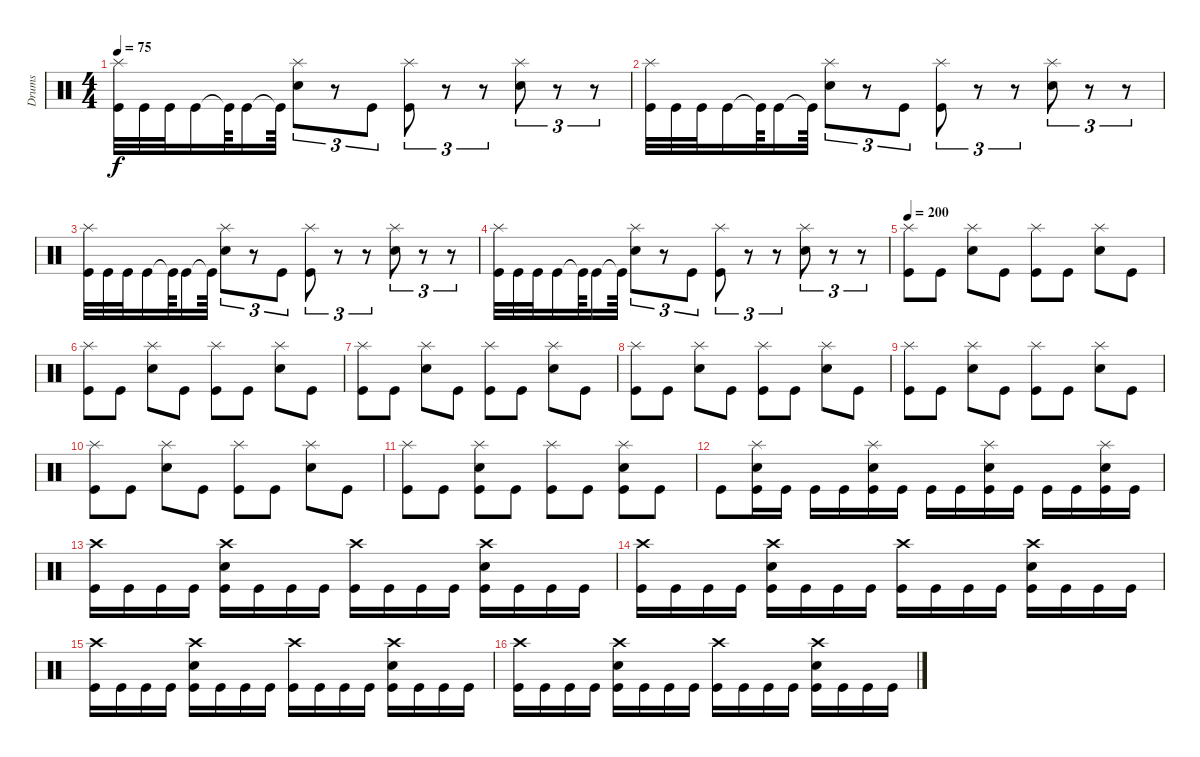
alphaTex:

\track ("Drums" "Drums") {instrument percussion}
\staff {score}
\articulation defaults
\ts (4 4)
\tempo 75
\clef neutral
\ks c
("Splash (hit)" "Kick (hit)").32{dy f} "Kick (hit)".32 "Kick (hit)".32 "Kick (hit)".16 "Kick (hit)"{t}.64 "Kick (hit)".16 "Kick (hit)"{t}.64 ("Splash (hit)" "Snare (hit) 2").8{tu (3 2)} r.8{tu (3 2)} "Kick (hit)".8{tu (3 2)} ("Splash (hit)" "Kick (hit)").8{tu (3 2)} r.8{tu (3 2)} r.8{tu (3 2)} ("Splash (hit)" "Snare (hit) 2").8{tu (3 2)} r.8{tu (3 2)} r.8{tu (3 2)} |
("Splash (hit)" "Kick (hit)").32 "Kick (hit)".32 "Kick (hit)".32 "Kick (hit)".16 "Kick (hit)"{t}.64 "Kick (hit)".16 "Kick (hit)"{t}.64 ("Splash (hit)" "Snare (hit) 2").8{tu (3 2)} r.8{tu (3 2)} "Kick (hit)".8{tu (3 2)} ("Splash (hit)" "Kick (hit)").8{tu (3 2)} r.8{tu (3 2)} r.8{tu (3 2)} ("Splash (hit)" "Snare (hit) 2").8{tu (3 2)} r.8{tu (3 2)} r.8{tu (3 2)} |
("Splash (hit)" "Kick (hit)").32 "Kick (hit)".32 "Kick (hit)".32 "Kick (hit)".16 "Kick (hit)"{t}.64 "Kick (hit)".16 "Kick (hit)"{t}.64 ("Splash (hit)" "Snare (hit) 2").8{tu (3 2)} r.8{tu (3 2)} "Kick (hit)".8{tu (3 2)} ("Splash (hit)" "Kick (hit)").8{tu (3 2)} r.8{tu (3 2)} r.8{tu (3 2)} ("Splash (hit)" "Snare (hit) 2").8{tu (3 2)} r.8{tu (3 2)} r.8{tu (3 2)} |
("Splash (hit)" "Kick (hit)").32 "Kick (hit)".32 "Kick (hit)".32 "Kick (hit)".16 "Kick (hit)"{t}.64 "Kick (hit)".16 "Kick (hit)"{t}.64 ("Splash (hit)" "Snare (hit) 2").8{tu (3 2)} r.8{tu (3 2)} "Kick (hit)".8{tu (3 2)} ("Splash (hit)" "Kick (hit)").8{tu (3 2)} r.8{tu (3 2)} r.8{tu (3 2)} ("Splash (hit)" "Snare (hit) 2").8{tu (3 2)} r.8{tu (3 2)} r.8{tu (3 2)} |
\tempo 200
("Splash (hit)" "Kick (hit)").8 "Kick (hit)".8 ("Splash (hit)" "Snare (hit) 2").8 "Kick (hit)".8 ("Splash (hit)" "Kick (hit)").8 "Kick (hit)".8 ("Splash (hit)" "Snare (hit) 2").8 "Kick (hit)".8 |
("Splash (hit)" "Kick (hit)").8 "Kick (hit)".8 ("Splash (hit)" "Snare (hit) 2").8 "Kick (hit)".8 ("Splash (hit)" "Kick (hit)").8 "Kick (hit)".8 ("Splash (hit)" "Snare (hit) 2").8 "Kick (hit)".8 |
("Splash (hit)" "Kick (hit)").8 "Kick (hit)".8 ("Splash (hit)" "Snare (hit) 2").8 "Kick (hit)".8 ("Splash (hit)" "Kick (hit)").8 "Kick (hit)".8 ("Splash (hit)" "Snare (hit) 2").8 "Kick (hit)".8 |
("Splash (hit)" "Kick (hit)").8 "Kick (hit)".8 ("Splash (hit)" "Snare (hit) 2").8 "Kick (hit)".8 ("Splash (hit)" "Kick (hit)").8 "Kick (hit)".8 ("Splash (hit)" "Snare (hit) 2").8 "Kick (hit)".8 |
("Splash (hit)" "Kick (hit)").8 "Kick (hit)".8 ("Splash (hit)" "Snare (hit) 2").8 "Kick (hit)".8 ("Splash (hit)" "Kick (hit)").8 "Kick (hit)".8 ("Splash (hit)" "Snare (hit) 2").8 "Kick (hit)".8 |
("Splash (hit)" "Kick (hit)").8 "Kick (hit)".8 ("Splash (hit)" "Snare (hit) 2").8 "Kick (hit)".8 ("Splash (hit)" "Kick (hit)").8 "Kick (hit)".8 ("Splash (hit)" "Snare (hit) 2").8 "Kick (hit)".8 |
("Splash (hit)" "Kick (hit)").8 "Kick (hit)".8 ("Splash (hit)" "Snare (hit) 2" "Kick (hit)").8 "Kick (hit)".8 ("Splash (hit)" "Kick (hit)").8 "Kick (hit)".8 ("Splash (hit)" "Snare (hit) 2" "Kick (hit)").8 "Kick (hit)".8 |
"Kick (hit)".8 ("Splash (hit)" "Snare (hit) 2" "Kick (hit)").16 "Kick (hit)".16 "Kick (hit)".16 "Kick (hit)".16 ("Splash (hit)" "Snare (hit) 2" "Kick (hit)").16 "Kick (hit)".16 "Kick (hit)".16 "Kick (hit)".16 ("Splash (hit)" "Snare (hit) 2" "Kick (hit)").16 "Kick (hit)".16 "Kick (hit)".16 "Kick (hit)".16 ("Splash (hit)" "Snare (hit) 2" "Kick (hit)").16 "Kick (hit)".16 |
("Crash high (hit)" "Kick (hit)").16 "Kick (hit)".16 "Kick (hit)".16 "Kick (hit)".16 ("Crash high (hit)" "Snare (hit) 2" "Kick (hit)").16 "Kick (hit)".16 "Kick (hit)".16 "Kick (hit)".16 ("Crash high (hit)" "Kick (hit)").16 "Kick (hit)".16 "Kick (hit)".16 "Kick (hit)".16 ("Crash high (hit)" "Snare (hit) 2" "Kick (hit)").16 "Kick (hit)".16 "Kick (hit)".16 "Kick (hit)".16 |
("Crash high (hit)" "Kick (hit)").16 "Kick (hit)".16 "Kick (hit)".16 "Kick (hit)".16 ("Crash high (hit)" "Snare (hit) 2" "Kick (hit)").16 "Kick (hit)".16 "Kick (hit)".16 "Kick (hit)".16 ("Crash high (hit)" "Kick (hit)").16 "Kick (hit)".16 "Kick (hit)".16 "Kick (hit)".16 ("Crash high (hit)" "Snare (hit) 2" "Kick (hit)").16 "Kick (hit)".16 "Kick (hit)".16 "Kick (hit)".16 |
("Crash high (hit)" "Kick (hit)").16 "Kick (hit)".16 "Kick (hit)".16 "Kick (hit)".16 ("Crash high (hit)" "Snare (hit) 2" "Kick (hit)").16 "Kick (hit)".16 "Kick (hit)".16 "Kick (hit)".16 ("Crash high (hit)" "Kick (hit)").16 "Kick (hit)".16 "Kick (hit)".16 "Kick (hit)".16 ("Crash high (hit)" "Snare (hit) 2" "Kick (hit)").16 "Kick (hit)".16 "Kick (hit)".16 "Kick (hit)".16 |
("Crash high (hit)" "Kick (hit)").16 "Kick (hit)".16 "Kick (hit)".16 "Kick (hit)".16 ("Crash high (hit)" "Snare (hit) 2" "Kick (hit)").16 "Kick (hit)".16 "Kick (hit)".16 "Kick (hit)".16 ("Crash high (hit)" "Kick (hit)").16 "Kick (hit)".16 "Kick (hit)".16 "Kick (hit)".16 ("Crash high (hit)" "Snare (hit) 2" "Kick (hit)").16 "Kick (hit)".16 "Kick (hit)".16 "Kick (hit)".16
